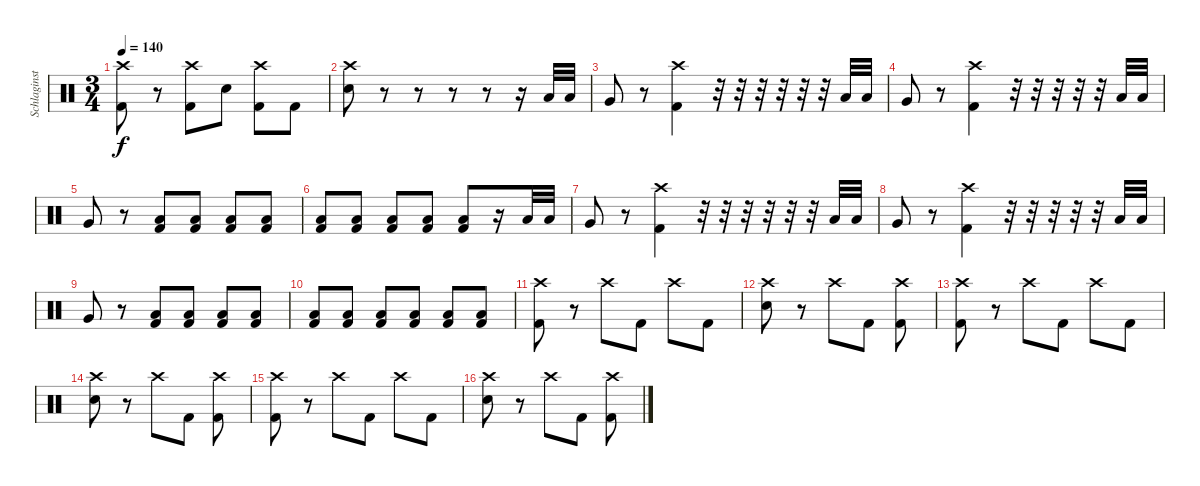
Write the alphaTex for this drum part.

\track ("Schlaginstrumente - Auswahl" "Schlaginst") {instrument percussion}
\staff {score}
\articulation defaults
\ts (3 4)
\tempo 140
\clef neutral
\ks c
("Crash high (hit)" "Kick (hit) 2").8{dy f} r.8 ("Crash high (hit)" "Kick (hit) 2").8 "Electric Snare (hit)".8 ("Crash high (hit)" "Kick (hit) 2").8 "Kick (hit) 2".8 |
("Crash high (hit)" "Electric Snare (hit)").8 r.8 r.8 r.8 r.8 r.16 "Low Tom (hit)".32 "Low Tom (hit)".32 |
"Very Low Tom (hit)".8 r.8 ("Crash high (hit)" "Kick (hit) 2").4 r.32 r.32 r.32 r.32 r.32 r.32 "Low Tom (hit)".32 "Low Tom (hit)".32 |
"Very Low Tom (hit)".8 r.8 ("Crash high (hit)" "Kick (hit) 2").4 r.32 r.32 r.32 r.32 r.32 "Low Tom (hit)".32 "Low Tom (hit)".32 |
"Very Low Tom (hit)".8 r.8 ("Low Tom (hit)" "Kick (hit) 2").8 ("Low Tom (hit)" "Kick (hit) 2").8 ("Low Tom (hit)" "Kick (hit) 2").8 ("Low Tom (hit)" "Kick (hit) 2").8 |
("Low Tom (hit)" "Kick (hit) 2").8 ("Low Tom (hit)" "Kick (hit) 2").8 ("Low Tom (hit)" "Kick (hit) 2").8 ("Low Tom (hit)" "Kick (hit) 2").8 ("Low Tom (hit)" "Kick (hit) 2").8 r.16 "Low Tom (hit)".32 "Low Tom (hit)".32 |
"Very Low Tom (hit)".8 r.8 ("Crash high (hit)" "Kick (hit) 2").4 r.32 r.32 r.32 r.32 r.32 r.32 "Low Tom (hit)".32 "Low Tom (hit)".32 |
"Very Low Tom (hit)".8 r.8 ("Crash high (hit)" "Kick (hit) 2").4 r.32 r.32 r.32 r.32 r.32 "Low Tom (hit)".32 "Low Tom (hit)".32 |
"Very Low Tom (hit)".8 r.8 ("Low Tom (hit)" "Kick (hit) 2").8 ("Low Tom (hit)" "Kick (hit) 2").8 ("Low Tom (hit)" "Kick (hit) 2").8 ("Low Tom (hit)" "Kick (hit) 2").8 |
("Low Tom (hit)" "Kick (hit) 2").8 ("Low Tom (hit)" "Kick (hit) 2").8 ("Low Tom (hit)" "Kick (hit) 2").8 ("Low Tom (hit)" "Kick (hit) 2").8 ("Low Tom (hit)" "Kick (hit) 2").8 ("Low Tom (hit)" "Kick (hit) 2").8 |
("Crash high (hit)" "Kick (hit) 2").8 r.8 "Crash high (hit)".8 "Kick (hit) 2".8 "Crash high (hit)".8 "Kick (hit) 2".8 |
("Crash high (hit)" "Electric Snare (hit)").8 r.8 "Crash high (hit)".8 "Kick (hit) 2".8 ("Crash high (hit)" "Kick (hit) 2").8 |
("Crash high (hit)" "Kick (hit) 2").8 r.8 "Crash high (hit)".8 "Kick (hit) 2".8 "Crash high (hit)".8 "Kick (hit) 2".8 |
("Crash high (hit)" "Electric Snare (hit)").8 r.8 "Crash high (hit)".8 "Kick (hit) 2".8 ("Crash high (hit)" "Kick (hit) 2").8 |
("Crash high (hit)" "Kick (hit) 2").8 r.8 "Crash high (hit)".8 "Kick (hit) 2".8 "Crash high (hit)".8 "Kick (hit) 2".8 |
("Crash high (hit)" "Electric Snare (hit)").8 r.8 "Crash high (hit)".8 "Kick (hit) 2".8 ("Crash high (hit)" "Kick (hit) 2").8
